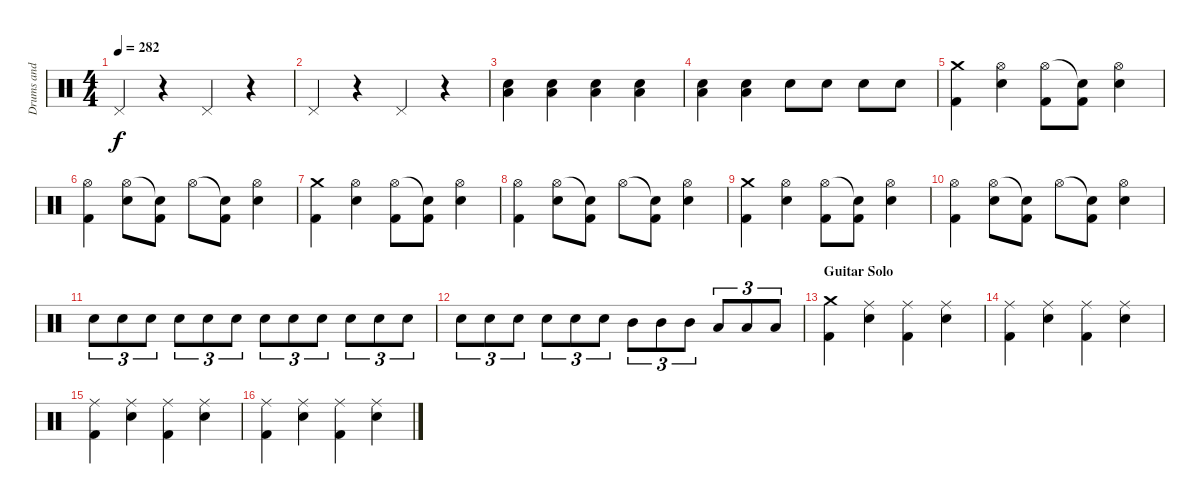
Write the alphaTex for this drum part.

\track ("Drums and Percussion" "Drums and ") {instrument percussion}
\staff {score}
\articulation defaults
\ts (4 4)
\tempo 282
\clef neutral
\ks c "Pedal Hi-Hat (hit)".4{dy f}
r.4 "Pedal Hi-Hat (hit)".4 r.4 |
"Pedal Hi-Hat (hit)".4 r.4 "Pedal Hi-Hat (hit)".4 r.4 |
("Snare (hit) 2" "Low Floor Tom (hit)").4 ("Snare (hit) 2" "Low Floor Tom (hit)").4 ("Snare (hit) 2" "Low Floor Tom (hit)").4 ("Snare (hit) 2" "Low Floor Tom (hit)").4 |
("Snare (hit) 2" "Low Floor Tom (hit)").4 ("Snare (hit) 2" "Low Floor Tom (hit)").4 "Snare (hit) 2".8 "Snare (hit) 2".8 "Snare (hit) 2".8 "Snare (hit) 2".8 |
("Crash medium (hit)" "Kick (hit) 2").4 ("Hi-Hat (open)" "Snare (hit) 2").4 ("Hi-Hat (open)" "Kick (hit) 2").8 ("Snare (hit)"{t} "Kick (hit) 2").8 ("Hi-Hat (open)" "Snare (hit) 2").4 |
("Hi-Hat (open)" "Kick (hit) 2").4 ("Hi-Hat (open)" "Snare (hit) 2").8 ("Snare (hit)"{t} "Kick (hit) 2").8 "Hi-Hat (open)".8 ("Snare (hit)"{t} "Kick (hit) 2").8 ("Hi-Hat (open)" "Snare (hit) 2").4 |
("Crash medium (hit)" "Kick (hit) 2").4 ("Hi-Hat (open)" "Snare (hit) 2").4 ("Hi-Hat (open)" "Kick (hit) 2").8 ("Snare (hit)"{t} "Kick (hit) 2").8 ("Hi-Hat (open)" "Snare (hit) 2").4 |
("Hi-Hat (open)" "Kick (hit) 2").4 ("Hi-Hat (open)" "Snare (hit) 2").8 ("Snare (hit)"{t} "Kick (hit) 2").8 "Hi-Hat (open)".8 ("Snare (hit)"{t} "Kick (hit) 2").8 ("Hi-Hat (open)" "Snare (hit) 2").4 |
("Crash medium (hit)" "Kick (hit) 2").4 ("Hi-Hat (open)" "Snare (hit) 2").4 ("Hi-Hat (open)" "Kick (hit) 2").8 ("Snare (hit)"{t} "Kick (hit) 2").8 ("Hi-Hat (open)" "Snare (hit) 2").4 |
("Hi-Hat (open)" "Kick (hit) 2").4 ("Hi-Hat (open)" "Snare (hit) 2").8 ("Snare (hit)"{t} "Kick (hit) 2").8 "Hi-Hat (open)".8 ("Snare (hit)"{t} "Kick (hit) 2").8 ("Hi-Hat (open)" "Snare (hit) 2").4 |
"Snare (hit) 2".8{tu (3 2)} "Snare (hit) 2".8{tu (3 2)} "Snare (hit) 2".8{tu (3 2)} "Snare (hit) 2".8{tu (3 2)} "Snare (hit) 2".8{tu (3 2)} "Snare (hit) 2".8{tu (3 2)} "Snare (hit) 2".8{tu (3 2)} "Snare (hit) 2".8{tu (3 2)} "Snare (hit) 2".8{tu (3 2)} "Snare (hit) 2".8{tu (3 2)} "Snare (hit) 2".8{tu (3 2)} "Snare (hit) 2".8{tu (3 2)} |
"Snare (hit) 2".8{tu (3 2)} "Snare (hit) 2".8{tu (3 2)} "Snare (hit) 2".8{tu (3 2)} "Snare (hit) 2".8{tu (3 2)} "Snare (hit) 2".8{tu (3 2)} "Snare (hit) 2".8{tu (3 2)} "Mid Tom (hit)".8{tu (3 2)} "Mid Tom (hit)".8{tu (3 2)} "Mid Tom (hit)".8{tu (3 2)} "Low Tom (hit)".8{tu (3 2)} "Low Tom (hit)".8{tu (3 2)} "Low Tom (hit)".8{tu (3 2)} |
\section ("" "Guitar Solo")
("Crash medium (hit)" "Kick (hit) 2").4 ("Ride (middle)" "Snare (hit) 2").4 ("Ride (middle)" "Kick (hit) 2").4 ("Ride (middle)" "Snare (hit) 2").4 |
("Ride (middle)" "Kick (hit) 2").4 ("Ride (middle)" "Snare (hit) 2").4 ("Ride (middle)" "Kick (hit) 2").4 ("Ride (middle)" "Snare (hit) 2").4 |
("Ride (middle)" "Kick (hit) 2").4 ("Ride (middle)" "Snare (hit) 2").4 ("Ride (middle)" "Kick (hit) 2").4 ("Ride (middle)" "Snare (hit) 2").4 |
("Ride (middle)" "Kick (hit) 2").4 ("Ride (middle)" "Snare (hit) 2").4 ("Ride (middle)" "Kick (hit) 2").4 ("Ride (middle)" "Snare (hit) 2").4
